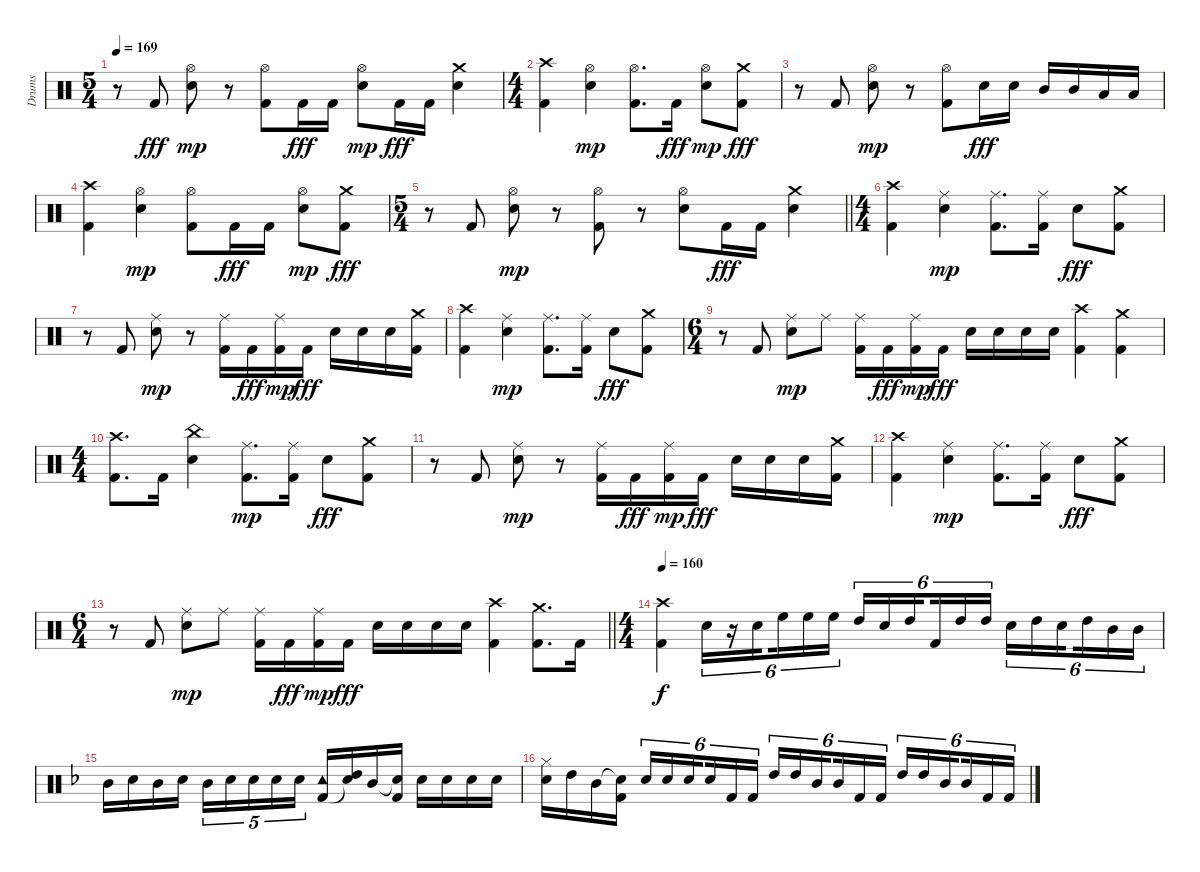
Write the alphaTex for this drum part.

\track ("Drums" "Drums") {instrument percussion}
\staff {score}
\articulation defaults
\ts (5 4)
\tempo 169
\clef neutral
\ks c
r.8{dy fff} "Kick (hit) 2".8 ("Electric Snare (hit)" "Hi-Hat (open)").8{dy mp} r.8 ("Kick (hit) 2" "Hi-Hat (open)").8 "Kick (hit) 2".16{dy fff} "Kick (hit) 2".16 ("Electric Snare (hit)" "Hi-Hat (open)").8{dy mp} "Kick (hit) 2".16{dy fff} "Kick (hit) 2".16 ("Electric Snare (hit)" "Crash medium (hit)").4 |
\ts (4 4)
("Kick (hit) 2" "Crash high (hit)").4 ("Electric Snare (hit)" "Hi-Hat (open)").4{dy mp} ("Kick (hit) 2" "Hi-Hat (open)").8{d} "Kick (hit) 2".16{dy fff} ("Electric Snare (hit)" "Hi-Hat (open)").8{dy mp} ("Kick (hit) 2" "Crash medium (hit)").8{dy fff} |
r.8 "Kick (hit) 2".8 ("Electric Snare (hit)" "Hi-Hat (open)").8{dy mp} r.8 ("Kick (hit) 2" "Hi-Hat (open)").8 "Electric Snare (hit)".16{dy fff} "Electric Snare (hit)".16 "Mid Tom (hit)".16 "Mid Tom (hit)".16 "Low Tom (hit)".16 "Low Tom (hit)".16 |
("Kick (hit) 2" "Crash high (hit)").4 ("Electric Snare (hit)" "Hi-Hat (open)").4{dy mp} ("Kick (hit) 2" "Hi-Hat (open)").8 "Kick (hit) 2".16{dy fff} "Kick (hit) 2".16 ("Electric Snare (hit)" "Hi-Hat (open)").8{dy mp} ("Kick (hit) 2" "Crash medium (hit)").8{dy fff} |
\ts (5 4)
\barLineRight lightlight
r.8 "Kick (hit) 2".8 ("Electric Snare (hit)" "Hi-Hat (open)").8{dy mp} r.8 ("Kick (hit) 2" "Hi-Hat (open)").8 r.8 ("Electric Snare (hit)" "Hi-Hat (open)").8 "Kick (hit) 2".16{dy fff} "Kick (hit) 2".16 ("Electric Snare (hit)" "Crash medium (hit)").4 |
\ts (4 4)
("Kick (hit) 2" "Crash high (hit)").4{volume 12} ("Electric Snare (hit)" "Ride (middle)").4{dy mp} ("Kick (hit) 2" "Ride (middle)").8{d} ("Kick (hit) 2" "Ride (middle)").16 "Electric Snare (hit)".8{dy fff} ("Kick (hit) 2" "Crash medium (hit)").8 |
r.8 "Kick (hit) 2".8 ("Electric Snare (hit)" "Ride (middle)").8{dy mp} r.8 ("Kick (hit) 2" "Ride (middle)").16 "Kick (hit) 2".16{dy fff} ("Kick (hit) 2" "Ride (middle)").16{dy mp} "Kick (hit) 2".16{dy fff} "Electric Snare (hit)".16 "Electric Snare (hit)".16 "Electric Snare (hit)".16 ("Kick (hit) 2" "Crash medium (hit)").16 |
("Kick (hit) 2" "Crash high (hit)").4 ("Electric Snare (hit)" "Ride (middle)").4{dy mp} ("Kick (hit) 2" "Ride (middle)").8{d} ("Kick (hit) 2" "Ride (middle)").16 "Electric Snare (hit)".8{dy fff} ("Kick (hit) 2" "Crash medium (hit)").8 |
\ts (6 4)
r.8 "Kick (hit) 2".8 ("Electric Snare (hit)" "Ride (middle)").8{dy mp} "Ride (middle)".8 ("Kick (hit) 2" "Ride (middle)").16 "Kick (hit) 2".16{dy fff} ("Kick (hit) 2" "Ride (middle)").16{dy mp} "Kick (hit) 2".16{dy fff} "Electric Snare (hit)".16 "Electric Snare (hit)".16 "Electric Snare (hit)".16 "Electric Snare (hit)".16 ("Kick (hit) 2" "Crash high (hit)").4 ("Kick (hit) 2" "Crash medium (hit)").4 |
\ts (4 4)
("Kick (hit) 2" "Crash high (hit)").8{d} "Kick (hit) 2".16 ("Electric Snare (hit)" "China (hit)").4 ("Kick (hit) 2" "Ride (middle)").8{d dy mp} ("Kick (hit) 2" "Ride (middle)").16 "Electric Snare (hit)".8{dy fff} ("Kick (hit) 2" "Crash medium (hit)").8 |
r.8 "Kick (hit) 2".8 ("Electric Snare (hit)" "Ride (middle)").8{dy mp} r.8 ("Kick (hit) 2" "Ride (middle)").16 "Kick (hit) 2".16{dy fff} ("Kick (hit) 2" "Ride (middle)").16{dy mp} "Kick (hit) 2".16{dy fff} "Electric Snare (hit)".16 "Electric Snare (hit)".16 "Electric Snare (hit)".16 ("Kick (hit) 2" "Crash medium (hit)").16 |
("Kick (hit) 2" "Crash high (hit)").4 ("Electric Snare (hit)" "Ride (middle)").4{dy mp} ("Kick (hit) 2" "Ride (middle)").8{d} ("Kick (hit) 2" "Ride (middle)").16 "Electric Snare (hit)".8{dy fff} ("Kick (hit) 2" "Crash medium (hit)").8 |
\ts (6 4)
\barLineRight lightlight
r.8 "Kick (hit) 2".8 ("Electric Snare (hit)" "Ride (middle)").8{dy mp} "Ride (middle)".8 ("Kick (hit) 2" "Ride (middle)").16 "Kick (hit) 2".16{dy fff} ("Kick (hit) 2" "Ride (middle)").16{dy mp} "Kick (hit) 2".16{dy fff} "Electric Snare (hit)".16 "Electric Snare (hit)".16 "Electric Snare (hit)".16 "Electric Snare (hit)".16 ("Kick (hit) 2" "Crash high (hit)").4 ("Kick (hit) 2" "Crash medium (hit)").8{d} "Kick (hit) 2".16 |
\ts (4 4)
\tempo 160
("Crash high (hit)" "Kick (hit) 2").4{dy f} "Snare (hit) 2".16{tu (6 4)} r.16{tu (6 4)} "Snare (hit) 2".16{tu (6 4) beam splitsecondary} "High Floor Tom (hit)".16{tu (6 4)} "High Floor Tom (hit)".16{tu (6 4)} "High Floor Tom (hit)".16{tu (6 4)} "High Tom (hit)".16{tu (6 4)} "Snare (hit) 2".16{tu (6 4)} "High Tom (hit)".16{tu (6 4) beam splitsecondary} "Kick (hit) 2".16{tu (6 4)} "High Tom (hit)".16{tu (6 4)} "High Tom (hit)".16{tu (6 4)} "Snare (hit) 2".16{tu (6 4)} "High Tom (hit)".16{tu (6 4)} "Snare (hit) 2".16{tu (6 4) beam splitsecondary} "High Tom (hit)".16{tu (6 4)} "Mid Tom (hit)".16{tu (6 4)} "Mid Tom (hit)".16{tu (6 4)} |
\ks f "Mid Tom (hit)".16 "Snare (hit) 2".16 "Mid Tom (hit)".16 "Snare (hit) 2".16 "Mid Tom (hit)".16{tu (5 4)} "Snare (hit) 2".16{tu (5 4)} "Snare (hit) 2".16{tu (5 4)} "Snare (hit) 2".16{tu (5 4)} "Snare (hit) 2".16{tu (5 4)}
("Tambourine (hit)" "Kick (hit) 2").16 ("High Tom (hit)" "Snare (hit)"{t}).16 "Mid Tom (hit)".16 ("Snare (hit)"{t} "Kick (hit) 2").16 "Snare (hit) 2".16 "Snare (hit) 2".16 "Snare (hit) 2".16 "Snare (hit) 2".16 |
("Hi-Hat (closed)" "Snare (hit) 2").16 "High Tom (hit)".16 "Mid Tom (hit)".16 ("Snare (hit)"{t} "Kick (hit) 2").16 "Snare (hit) 2".16{tu (6 4)} "Snare (hit) 2".16{tu (6 4)} "Snare (hit) 2".16{tu (6 4) beam splitsecondary} "Snare (hit) 2".16{tu (6 4)} "Kick (hit) 2".16{tu (6 4)} "Kick (hit) 2".16{tu (6 4)} "High Tom (hit)".16{tu (6 4)} "High Tom (hit)".16{tu (6 4)} "Mid Tom (hit)".16{tu (6 4) beam splitsecondary} "Mid Tom (hit)".16{tu (6 4)} "Kick (hit) 2".16{tu (6 4)} "Kick (hit) 2".16{tu (6 4)} "High Tom (hit)".16{tu (6 4)} "High Tom (hit)".16{tu (6 4)} "Mid Tom (hit)".16{tu (6 4) beam splitsecondary} "Mid Tom (hit)".16{tu (6 4)} "Kick (hit) 2".16{tu (6 4)} "Kick (hit) 2".16{tu (6 4)}
